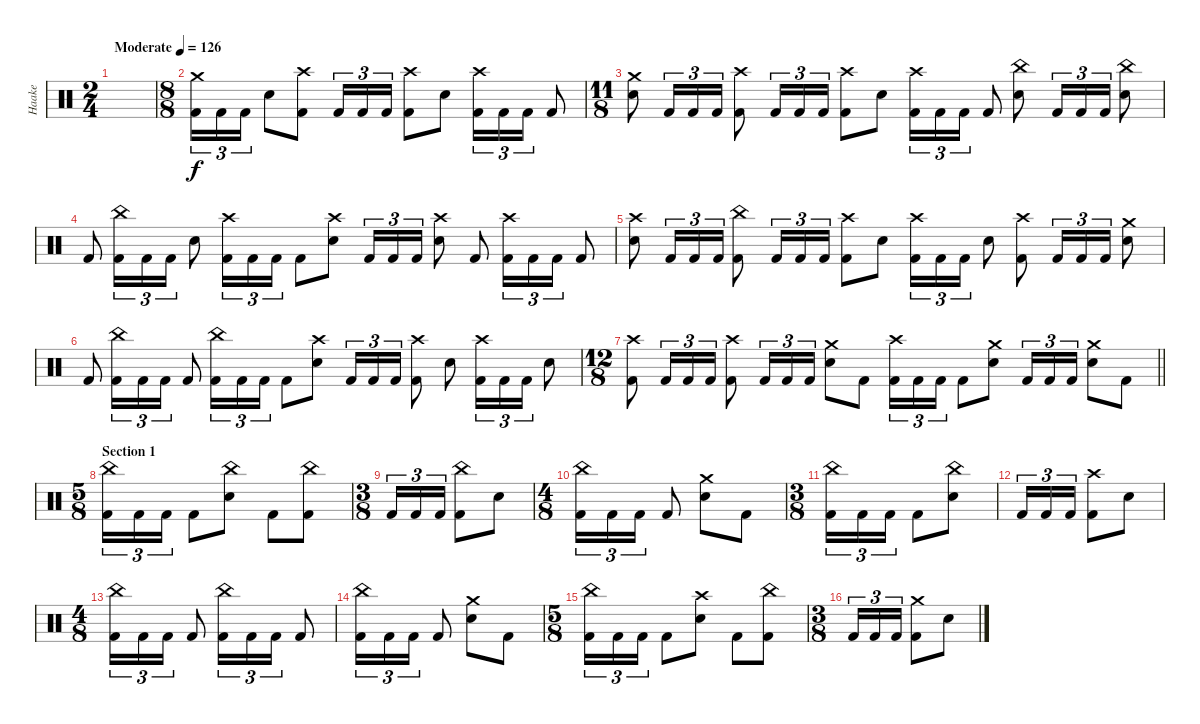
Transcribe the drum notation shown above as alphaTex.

\track ("Haake" "Haake") {instrument percussion}
\staff {score}
\articulation defaults
\ts (2 4)
\tempo (126 "Moderate")
\clef neutral
\ks c
|
\ts (8 8)
("Crash medium (hit)" "Kick (hit) 2").16{tu (3 2)} "Kick (hit) 2".16{tu (3 2)} "Kick (hit) 2".16{tu (3 2)} "Electric Snare (hit)".8 ("Crash high (hit)" "Kick (hit) 2").8 "Kick (hit) 2".16{tu (3 2)} "Kick (hit) 2".16{tu (3 2)} "Kick (hit) 2".16{tu (3 2)} ("Crash high (hit)" "Kick (hit) 2").8 "Electric Snare (hit)".8 ("Crash high (hit)" "Kick (hit) 2").16{tu (3 2)} "Kick (hit) 2".16{tu (3 2)} "Kick (hit) 2".16{tu (3 2)} "Kick (hit) 2".8 |
\ts (11 8)
("Crash medium (hit)" "Electric Snare (hit)").8 "Kick (hit) 2".16{tu (3 2)} "Kick (hit) 2".16{tu (3 2)} "Kick (hit) 2".16{tu (3 2)} ("Crash high (hit)" "Kick (hit) 2").8 "Kick (hit) 2".16{tu (3 2)} "Kick (hit) 2".16{tu (3 2)} "Kick (hit) 2".16{tu (3 2)} ("Crash high (hit)" "Kick (hit) 2").8 "Electric Snare (hit)".8 ("Crash high (hit)" "Kick (hit) 2").16{tu (3 2)} "Kick (hit) 2".16{tu (3 2)} "Kick (hit) 2".16{tu (3 2)} "Kick (hit) 2".8 ("China (hit)" "Electric Snare (hit)").8 "Kick (hit) 2".16{tu (3 2)} "Kick (hit) 2".16{tu (3 2)} "Kick (hit) 2".16{tu (3 2)} ("China (hit)" "Electric Snare (hit)").8 |
"Kick (hit) 2".8 ("China (hit)" "Kick (hit) 2").16{tu (3 2)} "Kick (hit) 2".16{tu (3 2)} "Kick (hit) 2".16{tu (3 2)} "Electric Snare (hit)".8 ("Crash high (hit)" "Kick (hit) 2").16{tu (3 2)} "Kick (hit) 2".16{tu (3 2)} "Kick (hit) 2".16{tu (3 2)} "Kick (hit) 2".8 ("Crash high (hit)" "Electric Snare (hit)").8 "Kick (hit) 2".16{tu (3 2)} "Kick (hit) 2".16{tu (3 2)} "Kick (hit) 2".16{tu (3 2)} ("Crash high (hit)" "Electric Snare (hit)").8 "Kick (hit) 2".8 ("Crash high (hit)" "Kick (hit) 2").16{tu (3 2)} "Kick (hit) 2".16{tu (3 2)} "Kick (hit) 2".16{tu (3 2)} "Kick (hit) 2".8 |
("Crash high (hit)" "Electric Snare (hit)").8 "Kick (hit) 2".16{tu (3 2)} "Kick (hit) 2".16{tu (3 2)} "Kick (hit) 2".16{tu (3 2)} ("China (hit)" "Kick (hit) 2").8 "Kick (hit) 2".16{tu (3 2)} "Kick (hit) 2".16{tu (3 2)} "Kick (hit) 2".16{tu (3 2)} ("Crash high (hit)" "Kick (hit) 2").8 "Electric Snare (hit)".8 ("Crash high (hit)" "Kick (hit) 2").16{tu (3 2)} "Kick (hit) 2".16{tu (3 2)} "Kick (hit) 2".16{tu (3 2)} "Electric Snare (hit)".8 ("Crash high (hit)" "Kick (hit) 2").8 "Kick (hit) 2".16{tu (3 2)} "Kick (hit) 2".16{tu (3 2)} "Kick (hit) 2".16{tu (3 2)} ("Crash medium (hit)" "Electric Snare (hit)").8 |
"Kick (hit) 2".8 ("China (hit)" "Kick (hit) 2").16{tu (3 2)} "Kick (hit) 2".16{tu (3 2)} "Kick (hit) 2".16{tu (3 2)} "Kick (hit) 2".8 ("China (hit)" "Kick (hit) 2").16{tu (3 2)} "Kick (hit) 2".16{tu (3 2)} "Kick (hit) 2".16{tu (3 2)} "Kick (hit) 2".8 ("Crash high (hit)" "Electric Snare (hit)").8 "Kick (hit) 2".16{tu (3 2)} "Kick (hit) 2".16{tu (3 2)} "Kick (hit) 2".16{tu (3 2)} ("Crash high (hit)" "Kick (hit) 2").8 "Electric Snare (hit)".8 ("Crash high (hit)" "Kick (hit) 2").16{tu (3 2)} "Kick (hit) 2".16{tu (3 2)} "Kick (hit) 2".16{tu (3 2)} "Electric Snare (hit)".8 |
\ts (12 8)
\barLineRight lightlight
("Crash high (hit)" "Kick (hit) 2").8 "Kick (hit) 2".16{tu (3 2)} "Kick (hit) 2".16{tu (3 2)} "Kick (hit) 2".16{tu (3 2)} ("Crash high (hit)" "Kick (hit) 2").8 "Kick (hit) 2".16{tu (3 2)} "Kick (hit) 2".16{tu (3 2)} "Kick (hit) 2".16{tu (3 2)} ("Crash medium (hit)" "Electric Snare (hit)").8 "Kick (hit) 2".8 ("Crash high (hit)" "Kick (hit) 2").16{tu (3 2)} "Kick (hit) 2".16{tu (3 2)} "Kick (hit) 2".16{tu (3 2)} "Kick (hit) 2".8 ("Crash medium (hit)" "Electric Snare (hit)").8 "Kick (hit) 2".16{tu (3 2)} "Kick (hit) 2".16{tu (3 2)} "Kick (hit) 2".16{tu (3 2)} ("Crash medium (hit)" "Electric Snare (hit)").8 "Kick (hit) 2".8 |
\ts (5 8)
\section ("" "Section 1")
("China (hit)" "Kick (hit) 2").16{tu (3 2)} "Kick (hit) 2".16{tu (3 2)} "Kick (hit) 2".16{tu (3 2)} "Kick (hit) 2".8 ("China (hit)" "Electric Snare (hit)").8 "Kick (hit) 2".8 ("China (hit)" "Kick (hit) 2").8 |
\ts (3 8)
"Kick (hit) 2".16{tu (3 2)} "Kick (hit) 2".16{tu (3 2)} "Kick (hit) 2".16{tu (3 2)} ("China (hit)" "Kick (hit) 2").8 "Electric Snare (hit)".8 |
\ts (4 8)
("China (hit)" "Kick (hit) 2").16{tu (3 2)} "Kick (hit) 2".16{tu (3 2)} "Kick (hit) 2".16{tu (3 2)} "Kick (hit) 2".8 ("Crash medium (hit)" "Electric Snare (hit)").8 "Kick (hit) 2".8 |
\ts (3 8)
("China (hit)" "Kick (hit) 2").16{tu (3 2)} "Kick (hit) 2".16{tu (3 2)} "Kick (hit) 2".16{tu (3 2)} "Kick (hit) 2".8 ("China (hit)" "Electric Snare (hit)").8 |
"Kick (hit) 2".16{tu (3 2)} "Kick (hit) 2".16{tu (3 2)} "Kick (hit) 2".16{tu (3 2)} ("Crash high (hit)" "Kick (hit) 2").8 "Electric Snare (hit)".8 |
\ts (4 8)
("China (hit)" "Kick (hit) 2").16{tu (3 2)} "Kick (hit) 2".16{tu (3 2)} "Kick (hit) 2".16{tu (3 2)} "Kick (hit) 2".8 ("China (hit)" "Kick (hit) 2").16{tu (3 2)} "Kick (hit) 2".16{tu (3 2)} "Kick (hit) 2".16{tu (3 2)} "Kick (hit) 2".8 |
("China (hit)" "Kick (hit) 2").16{tu (3 2)} "Kick (hit) 2".16{tu (3 2)} "Kick (hit) 2".16{tu (3 2)} "Kick (hit) 2".8 ("Crash medium (hit)" "Electric Snare (hit)").8 "Kick (hit) 2".8 |
\ts (5 8)
("China (hit)" "Kick (hit) 2").16{tu (3 2)} "Kick (hit) 2".16{tu (3 2)} "Kick (hit) 2".16{tu (3 2)} "Kick (hit) 2".8 ("Crash high (hit)" "Electric Snare (hit)").8 "Kick (hit) 2".8 ("China (hit)" "Kick (hit) 2").8 |
\ts (3 8)
"Kick (hit) 2".16{tu (3 2)} "Kick (hit) 2".16{tu (3 2)} "Kick (hit) 2".16{tu (3 2)} ("Crash medium (hit)" "Kick (hit) 2").8 "Electric Snare (hit)".8
